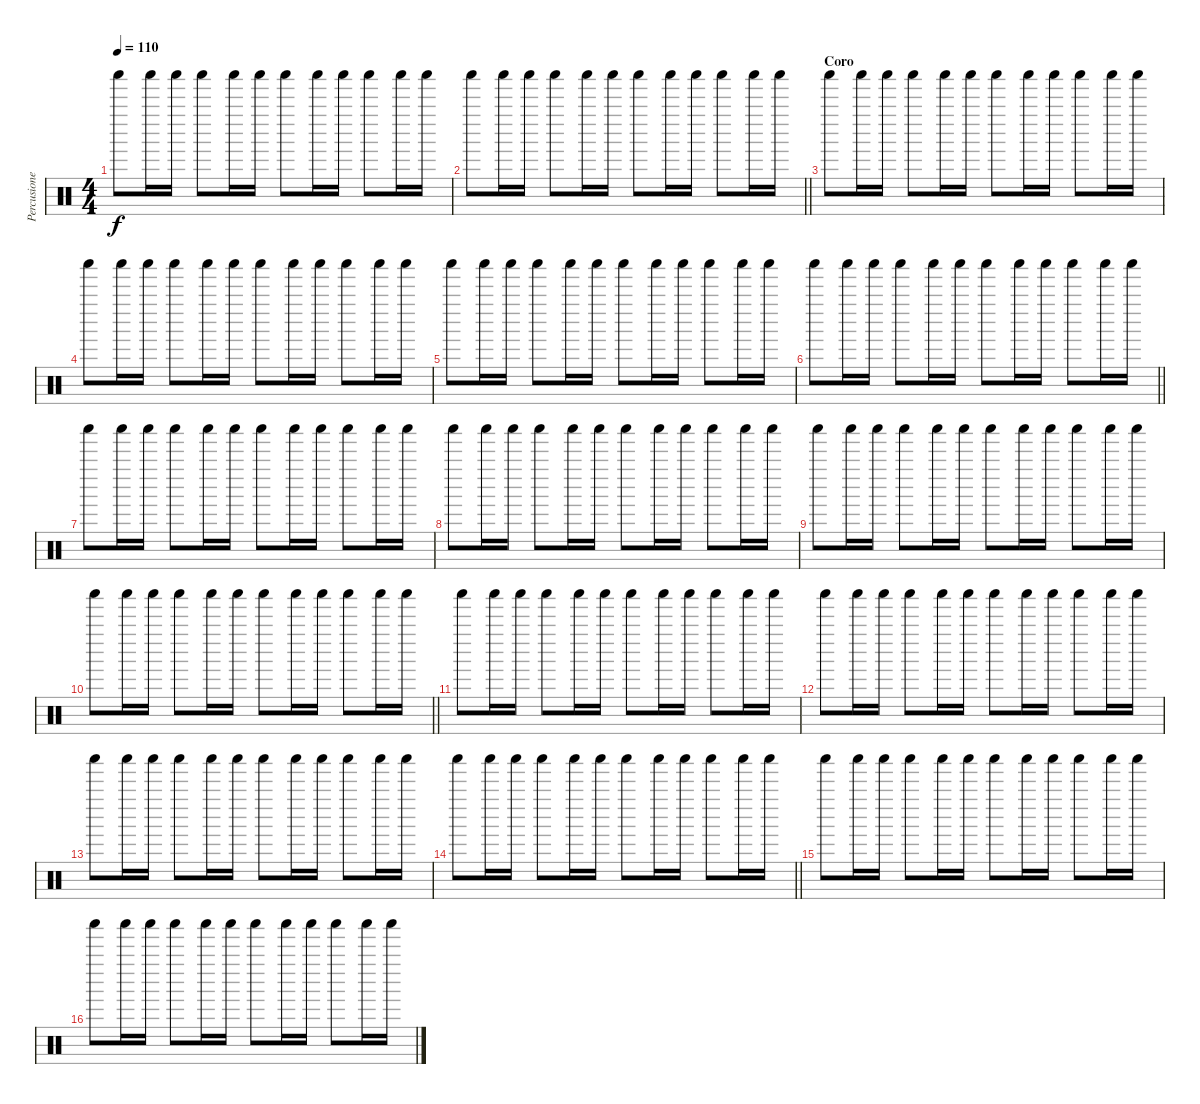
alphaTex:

\track ("Percusiones" "Percusione") {instrument percussion}
\staff {score}
\articulation defaults
\ts (4 4)
\tempo 110
\clef neutral
\ks c "Shaker (hit)".8{dy f} "Shaker (hit)".16 "Shaker (hit)".16 "Shaker (hit)".8 "Shaker (hit)".16 "Shaker (hit)".16 "Shaker (hit)".8 "Shaker (hit)".16 "Shaker (hit)".16 "Shaker (hit)".8 "Shaker (hit)".16 "Shaker (hit)".16
|
\barLineRight lightlight "Shaker (hit)".8 "Shaker (hit)".16 "Shaker (hit)".16 "Shaker (hit)".8 "Shaker (hit)".16 "Shaker (hit)".16 "Shaker (hit)".8 "Shaker (hit)".16 "Shaker (hit)".16 "Shaker (hit)".8 "Shaker (hit)".16 "Shaker (hit)".16
|
\section ("" "Coro")
"Shaker (hit)".8 "Shaker (hit)".16 "Shaker (hit)".16 "Shaker (hit)".8 "Shaker (hit)".16 "Shaker (hit)".16 "Shaker (hit)".8 "Shaker (hit)".16 "Shaker (hit)".16 "Shaker (hit)".8 "Shaker (hit)".16 "Shaker (hit)".16 |
"Shaker (hit)".8 "Shaker (hit)".16 "Shaker (hit)".16 "Shaker (hit)".8 "Shaker (hit)".16 "Shaker (hit)".16 "Shaker (hit)".8 "Shaker (hit)".16 "Shaker (hit)".16 "Shaker (hit)".8 "Shaker (hit)".16 "Shaker (hit)".16 |
"Shaker (hit)".8 "Shaker (hit)".16 "Shaker (hit)".16 "Shaker (hit)".8 "Shaker (hit)".16 "Shaker (hit)".16 "Shaker (hit)".8 "Shaker (hit)".16 "Shaker (hit)".16 "Shaker (hit)".8 "Shaker (hit)".16 "Shaker (hit)".16 |
\barLineRight lightlight "Shaker (hit)".8 "Shaker (hit)".16 "Shaker (hit)".16 "Shaker (hit)".8 "Shaker (hit)".16 "Shaker (hit)".16 "Shaker (hit)".8 "Shaker (hit)".16 "Shaker (hit)".16 "Shaker (hit)".8 "Shaker (hit)".16 "Shaker (hit)".16
|
"Shaker (hit)".8 "Shaker (hit)".16 "Shaker (hit)".16 "Shaker (hit)".8 "Shaker (hit)".16 "Shaker (hit)".16 "Shaker (hit)".8 "Shaker (hit)".16 "Shaker (hit)".16 "Shaker (hit)".8 "Shaker (hit)".16 "Shaker (hit)".16 |
"Shaker (hit)".8 "Shaker (hit)".16 "Shaker (hit)".16 "Shaker (hit)".8 "Shaker (hit)".16 "Shaker (hit)".16 "Shaker (hit)".8 "Shaker (hit)".16 "Shaker (hit)".16 "Shaker (hit)".8 "Shaker (hit)".16 "Shaker (hit)".16 |
"Shaker (hit)".8 "Shaker (hit)".16 "Shaker (hit)".16 "Shaker (hit)".8 "Shaker (hit)".16 "Shaker (hit)".16 "Shaker (hit)".8 "Shaker (hit)".16 "Shaker (hit)".16 "Shaker (hit)".8 "Shaker (hit)".16 "Shaker (hit)".16 |
\barLineRight lightlight "Shaker (hit)".8 "Shaker (hit)".16 "Shaker (hit)".16 "Shaker (hit)".8 "Shaker (hit)".16 "Shaker (hit)".16 "Shaker (hit)".8 "Shaker (hit)".16 "Shaker (hit)".16 "Shaker (hit)".8 "Shaker (hit)".16 "Shaker (hit)".16
|
"Shaker (hit)".8 "Shaker (hit)".16 "Shaker (hit)".16 "Shaker (hit)".8 "Shaker (hit)".16 "Shaker (hit)".16 "Shaker (hit)".8 "Shaker (hit)".16 "Shaker (hit)".16 "Shaker (hit)".8 "Shaker (hit)".16 "Shaker (hit)".16 |
"Shaker (hit)".8 "Shaker (hit)".16 "Shaker (hit)".16 "Shaker (hit)".8 "Shaker (hit)".16 "Shaker (hit)".16 "Shaker (hit)".8 "Shaker (hit)".16 "Shaker (hit)".16 "Shaker (hit)".8 "Shaker (hit)".16 "Shaker (hit)".16 |
"Shaker (hit)".8 "Shaker (hit)".16 "Shaker (hit)".16 "Shaker (hit)".8 "Shaker (hit)".16 "Shaker (hit)".16 "Shaker (hit)".8 "Shaker (hit)".16 "Shaker (hit)".16 "Shaker (hit)".8 "Shaker (hit)".16 "Shaker (hit)".16 |
\barLineRight lightlight "Shaker (hit)".8 "Shaker (hit)".16 "Shaker (hit)".16 "Shaker (hit)".8 "Shaker (hit)".16 "Shaker (hit)".16 "Shaker (hit)".8 "Shaker (hit)".16 "Shaker (hit)".16 "Shaker (hit)".8 "Shaker (hit)".16 "Shaker (hit)".16
|
"Shaker (hit)".8 "Shaker (hit)".16 "Shaker (hit)".16 "Shaker (hit)".8 "Shaker (hit)".16 "Shaker (hit)".16 "Shaker (hit)".8 "Shaker (hit)".16 "Shaker (hit)".16 "Shaker (hit)".8 "Shaker (hit)".16 "Shaker (hit)".16 |
"Shaker (hit)".8 "Shaker (hit)".16 "Shaker (hit)".16 "Shaker (hit)".8 "Shaker (hit)".16 "Shaker (hit)".16 "Shaker (hit)".8 "Shaker (hit)".16 "Shaker (hit)".16 "Shaker (hit)".8 "Shaker (hit)".16 "Shaker (hit)".16
